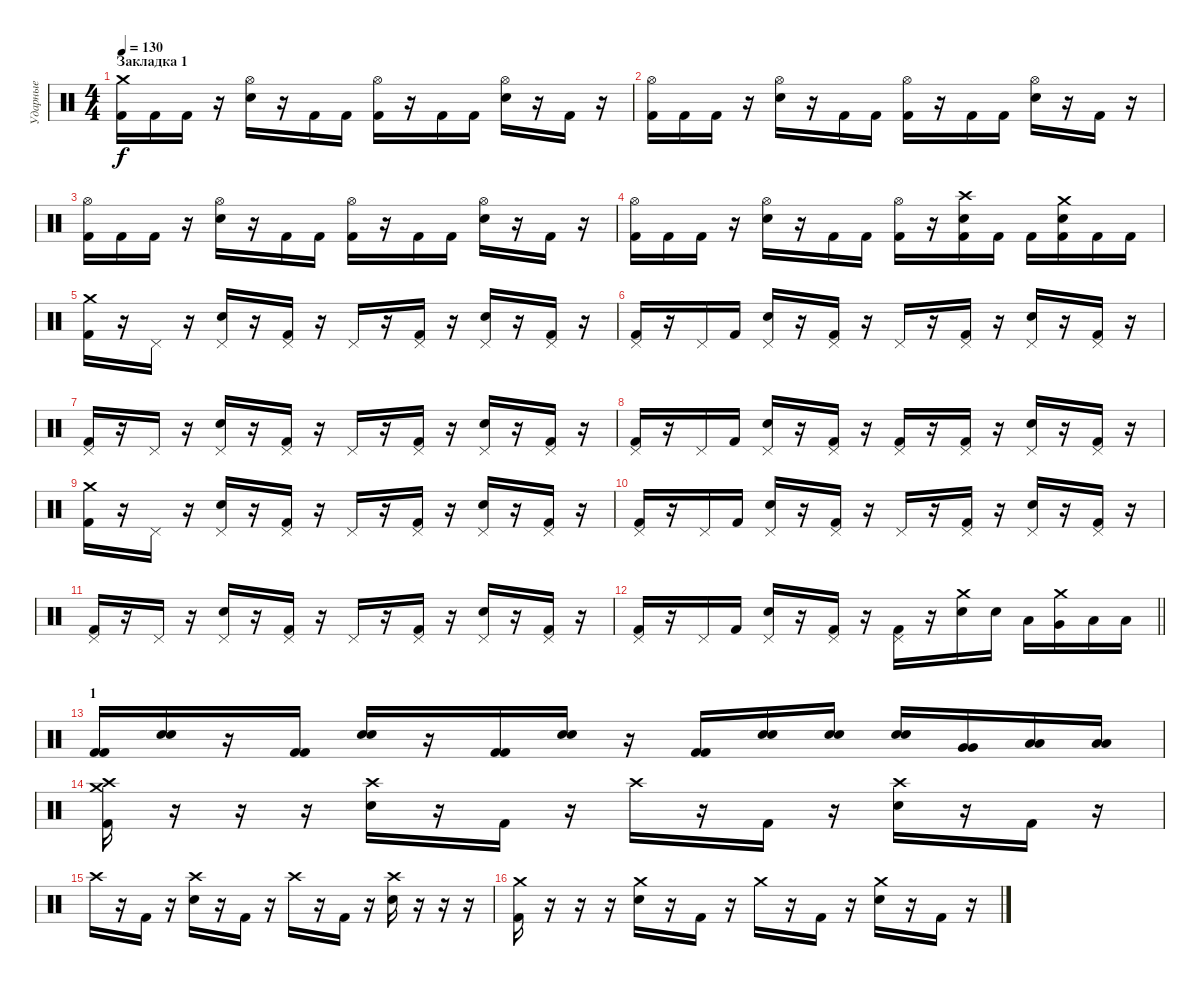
\track ("Ударные" "Ударные") {instrument percussion}
\staff {score}
\articulation defaults
\ts (4 4)
\section ("" "Закладка 1")
\tempo 130
\clef neutral
\ks c
("Crash medium (hit)" "Kick (hit) 2").16{dy f} "Kick (hit) 2".16 "Kick (hit) 2".16 r.16 ("Hi-Hat (open)" "Snare (hit) 2").16 r.16 "Kick (hit) 2".16 "Kick (hit) 2".16 ("Hi-Hat (open)" "Kick (hit) 2").16 r.16 "Kick (hit) 2".16 "Kick (hit) 2".16 ("Hi-Hat (open)" "Snare (hit) 2").16 r.16 "Kick (hit) 2".16 r.16 |
("Hi-Hat (open)" "Kick (hit) 2").16 "Kick (hit) 2".16 "Kick (hit) 2".16 r.16 ("Hi-Hat (open)" "Snare (hit) 2").16 r.16 "Kick (hit) 2".16 "Kick (hit) 2".16 ("Hi-Hat (open)" "Kick (hit) 2").16 r.16 "Kick (hit) 2".16 "Kick (hit) 2".16 ("Hi-Hat (open)" "Snare (hit) 2").16 r.16 "Kick (hit) 2".16 r.16 |
("Hi-Hat (open)" "Kick (hit) 2").16 "Kick (hit) 2".16 "Kick (hit) 2".16 r.16 ("Hi-Hat (open)" "Snare (hit) 2").16 r.16 "Kick (hit) 2".16 "Kick (hit) 2".16 ("Hi-Hat (open)" "Kick (hit) 2").16 r.16 "Kick (hit) 2".16 "Kick (hit) 2".16 ("Hi-Hat (open)" "Snare (hit) 2").16 r.16 "Kick (hit) 2".16 r.16 |
("Hi-Hat (open)" "Kick (hit) 2").16 "Kick (hit) 2".16 "Kick (hit) 2".16 r.16 ("Hi-Hat (open)" "Snare (hit) 2").16 r.16 "Kick (hit) 2".16 "Kick (hit) 2".16 ("Hi-Hat (open)" "Kick (hit) 2").16 r.16 ("Crash high (hit)" "Snare (hit) 2" "Kick (hit) 2").16 "Kick (hit) 2".16 "Kick (hit) 2".16 ("Crash medium (hit)" "Snare (hit) 2" "Kick (hit) 2").16 "Kick (hit) 2".16 "Kick (hit) 2".16 |
("Crash medium (hit)" "Kick (hit) 2").16 r.16 "Pedal Hi-Hat (hit)".16 r.16 ("Pedal Hi-Hat (hit)" "Snare (hit) 2").16 r.16 ("Pedal Hi-Hat (hit)" "Kick (hit) 2").16 r.16 "Pedal Hi-Hat (hit)".16 r.16 ("Pedal Hi-Hat (hit)" "Kick (hit) 2").16 r.16 ("Pedal Hi-Hat (hit)" "Snare (hit) 2").16 r.16 ("Pedal Hi-Hat (hit)" "Kick (hit) 2").16 r.16 |
("Pedal Hi-Hat (hit)" "Kick (hit) 2").16 r.16 "Pedal Hi-Hat (hit)".16 "Kick (hit) 2".16 ("Pedal Hi-Hat (hit)" "Snare (hit) 2").16 r.16 ("Pedal Hi-Hat (hit)" "Kick (hit) 2").16 r.16 "Pedal Hi-Hat (hit)".16 r.16 ("Pedal Hi-Hat (hit)" "Kick (hit) 2").16 r.16 ("Pedal Hi-Hat (hit)" "Snare (hit) 2").16 r.16 ("Pedal Hi-Hat (hit)" "Kick (hit) 2").16 r.16 |
("Pedal Hi-Hat (hit)" "Kick (hit) 2").16 r.16 "Pedal Hi-Hat (hit)".16 r.16 ("Pedal Hi-Hat (hit)" "Snare (hit) 2").16 r.16 ("Pedal Hi-Hat (hit)" "Kick (hit) 2").16 r.16 "Pedal Hi-Hat (hit)".16 r.16 ("Pedal Hi-Hat (hit)" "Kick (hit) 2").16 r.16 ("Pedal Hi-Hat (hit)" "Snare (hit) 2").16 r.16 ("Pedal Hi-Hat (hit)" "Kick (hit) 2").16 r.16 |
("Pedal Hi-Hat (hit)" "Kick (hit) 2").16 r.16 "Pedal Hi-Hat (hit)".16 "Kick (hit) 2".16 ("Pedal Hi-Hat (hit)" "Snare (hit) 2").16 r.16 ("Pedal Hi-Hat (hit)" "Kick (hit) 2").16 r.16 ("Pedal Hi-Hat (hit)" "Kick (hit) 2").16 r.16 ("Pedal Hi-Hat (hit)" "Kick (hit) 2").16 r.16 ("Pedal Hi-Hat (hit)" "Snare (hit) 2").16 r.16 ("Pedal Hi-Hat (hit)" "Kick (hit) 2").16 r.16 |
("Crash medium (hit)" "Kick (hit) 2").16 r.16 "Pedal Hi-Hat (hit)".16 r.16 ("Pedal Hi-Hat (hit)" "Snare (hit) 2").16 r.16 ("Pedal Hi-Hat (hit)" "Kick (hit) 2").16 r.16 "Pedal Hi-Hat (hit)".16 r.16 ("Pedal Hi-Hat (hit)" "Kick (hit) 2").16 r.16 ("Pedal Hi-Hat (hit)" "Snare (hit) 2").16 r.16 ("Pedal Hi-Hat (hit)" "Kick (hit) 2").16 r.16 |
("Pedal Hi-Hat (hit)" "Kick (hit) 2").16 r.16 "Pedal Hi-Hat (hit)".16 "Kick (hit) 2".16 ("Pedal Hi-Hat (hit)" "Snare (hit) 2").16 r.16 ("Pedal Hi-Hat (hit)" "Kick (hit) 2").16 r.16 "Pedal Hi-Hat (hit)".16 r.16 ("Pedal Hi-Hat (hit)" "Kick (hit) 2").16 r.16 ("Pedal Hi-Hat (hit)" "Snare (hit) 2").16 r.16 ("Pedal Hi-Hat (hit)" "Kick (hit) 2").16 r.16 |
("Pedal Hi-Hat (hit)" "Kick (hit) 2").16 r.16 "Pedal Hi-Hat (hit)".16 r.16 ("Pedal Hi-Hat (hit)" "Snare (hit) 2").16 r.16 ("Pedal Hi-Hat (hit)" "Kick (hit) 2").16 r.16 "Pedal Hi-Hat (hit)".16 r.16 ("Pedal Hi-Hat (hit)" "Kick (hit) 2").16 r.16 ("Pedal Hi-Hat (hit)" "Snare (hit) 2").16 r.16 ("Pedal Hi-Hat (hit)" "Kick (hit) 2").16 r.16 |
\barLineRight lightlight
("Pedal Hi-Hat (hit)" "Kick (hit) 2").16 r.16 "Pedal Hi-Hat (hit)".16 "Kick (hit) 2".16 ("Pedal Hi-Hat (hit)" "Snare (hit) 2").16 r.16 ("Pedal Hi-Hat (hit)" "Kick (hit) 2").16 r.16 ("Pedal Hi-Hat (hit)" "Kick (hit) 2").16 r.16 ("Crash medium (hit)" "Snare (hit) 2").16 "Snare (hit) 2".16 "Low Floor Tom (hit)".16 ("Crash medium (hit)" "Very Low Tom (hit)").16 "Low Tom (hit)".16 "Low Floor Tom (hit)".16 |
\section ("" "1")
("Kick (hit) 2" "Kick (hit) 2").16 ("Snare (hit) 2" "Snare (hit) 2").16 r.16 ("Kick (hit) 2" "Kick (hit) 2").16 ("Snare (hit) 2" "Snare (hit) 2").16 r.16 ("Kick (hit) 2" "Kick (hit) 2").16 ("Snare (hit) 2" "Snare (hit) 2").16 r.16 ("Kick (hit) 2" "Kick (hit) 2").16 ("Snare (hit) 2" "Snare (hit) 2").16 ("Snare (hit) 2" "Snare (hit) 2").16 ("Snare (hit) 2" "Snare (hit) 2").16 ("Very Low Tom (hit)" "Very Low Tom (hit)").16 ("Low Tom (hit)" "Low Tom (hit)").16 ("Low Tom (hit)" "Low Tom (hit)").16 |
("Crash high (hit)" "Crash medium (hit)" "Kick (hit) 2").16 r.16 r.16 r.16 ("Crash high (hit)" "Snare (hit) 2").16 r.16 "Kick (hit) 2".16 r.16 "Crash high (hit)".16 r.16 "Kick (hit) 2".16 r.16 ("Crash high (hit)" "Snare (hit) 2").16 r.16 "Kick (hit) 2".16 r.16 |
"Crash high (hit)".16 r.16 "Kick (hit) 2".16 r.16 ("Crash high (hit)" "Snare (hit) 2").16 r.16 "Kick (hit) 2".16 r.16 "Crash high (hit)".16 r.16 "Kick (hit) 2".16 r.16 ("Crash high (hit)" "Snare (hit) 2").16 r.16 r.16 r.16 |
("Crash medium (hit)" "Kick (hit) 2").16 r.16 r.16 r.16 ("Crash medium (hit)" "Snare (hit) 2").16 r.16 "Kick (hit) 2".16 r.16 "Crash medium (hit)".16 r.16 "Kick (hit) 2".16 r.16 ("Crash medium (hit)" "Snare (hit) 2").16 r.16 "Kick (hit) 2".16 r.16
